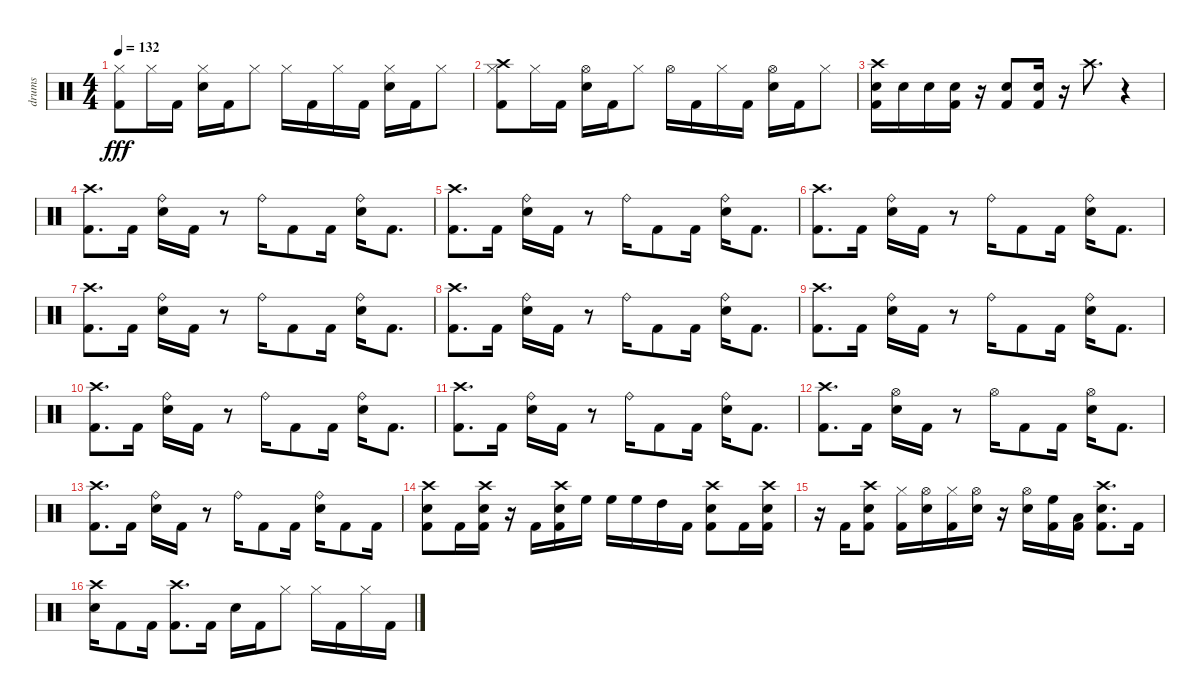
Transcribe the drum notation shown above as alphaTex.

\track ("drums" "drums") {instrument percussion}
\staff {score}
\articulation defaults
\ts (4 4)
\tempo 132
\clef neutral
\ks c
("Kick (hit) 2" "Hi-Hat (closed)").8{dy fff} "Hi-Hat (closed)".16 "Kick (hit) 2".16 ("Snare (hit) 2" "Hi-Hat (closed)").16 "Kick (hit) 2".16 "Hi-Hat (closed)".8 "Hi-Hat (closed)".16 "Kick (hit) 2".16 "Hi-Hat (closed)".16 "Kick (hit) 2".16 ("Snare (hit) 2" "Hi-Hat (closed)").16 "Kick (hit) 2".16 "Hi-Hat (closed)".8 |
("Kick (hit) 2" "Crash high (hit)" "Hi-Hat (closed)").8 "Hi-Hat (closed)".16 "Kick (hit) 2".16 ("Hi-Hat (open)" "Snare (hit) 2").16 "Kick (hit) 2".16 "Hi-Hat (closed)".8 "Hi-Hat (open)".16 "Kick (hit) 2".16 "Hi-Hat (closed)".16 "Kick (hit) 2".16 ("Snare (hit) 2" "Hi-Hat (open)").16 "Kick (hit) 2".16 "Hi-Hat (closed)".8 |
("Kick (hit) 2" "Snare (hit) 2" "Crash high (hit)").16 "Snare (hit) 2".16 "Snare (hit) 2".16 ("Kick (hit) 2" "Snare (hit) 2").16 r.16 ("Kick (hit) 2" "Snare (hit) 2").8 ("Kick (hit) 2" "Snare (hit) 2").16 r.16 "Crash high (hit)".8{d} r.4 |
("Kick (hit) 2" "Crash high (hit)").8{d} "Kick (hit) 2".16 ("Snare (hit) 2" "Ride (bell)").16 "Kick (hit) 2".16 r.8 "Ride (bell)".16 "Kick (hit) 2".8 "Kick (hit) 2".16 ("Snare (hit) 2" "Ride (bell)").16 "Kick (hit) 2".8{d} |
("Kick (hit) 2" "Crash high (hit)").8{d} "Kick (hit) 2".16 ("Snare (hit) 2" "Ride (bell)").16 "Kick (hit) 2".16 r.8 "Ride (bell)".16 "Kick (hit) 2".8 "Kick (hit) 2".16 ("Snare (hit) 2" "Ride (bell)").16 "Kick (hit) 2".8{d} |
("Kick (hit) 2" "Crash high (hit)").8{d} "Kick (hit) 2".16 ("Snare (hit) 2" "Ride (bell)").16 "Kick (hit) 2".16 r.8 "Ride (bell)".16 "Kick (hit) 2".8 "Kick (hit) 2".16 ("Snare (hit) 2" "Ride (bell)").16 "Kick (hit) 2".8{d} |
("Kick (hit) 2" "Crash high (hit)").8{d} "Kick (hit) 2".16 ("Snare (hit) 2" "Ride (bell)").16 "Kick (hit) 2".16 r.8 "Ride (bell)".16 "Kick (hit) 2".8 "Kick (hit) 2".16 ("Snare (hit) 2" "Ride (bell)").16 "Kick (hit) 2".8{d} |
("Kick (hit) 2" "Crash high (hit)").8{d} "Kick (hit) 2".16 ("Snare (hit) 2" "Ride (bell)").16 "Kick (hit) 2".16 r.8 "Ride (bell)".16 "Kick (hit) 2".8 "Kick (hit) 2".16 ("Snare (hit) 2" "Ride (bell)").16 "Kick (hit) 2".8{d} |
("Kick (hit) 2" "Crash high (hit)").8{d} "Kick (hit) 2".16 ("Snare (hit) 2" "Ride (bell)").16 "Kick (hit) 2".16 r.8 "Ride (bell)".16 "Kick (hit) 2".8 "Kick (hit) 2".16 ("Snare (hit) 2" "Ride (bell)").16 "Kick (hit) 2".8{d} |
("Kick (hit) 2" "Crash high (hit)").8{d} "Kick (hit) 2".16 ("Snare (hit) 2" "Ride (bell)").16 "Kick (hit) 2".16 r.8 "Ride (bell)".16 "Kick (hit) 2".8 "Kick (hit) 2".16 ("Snare (hit) 2" "Ride (bell)").16 "Kick (hit) 2".8{d} |
("Kick (hit) 2" "Crash high (hit)").8{d} "Kick (hit) 2".16 ("Snare (hit) 2" "Ride (bell)").16 "Kick (hit) 2".16 r.8 "Ride (bell)".16 "Kick (hit) 2".8 "Kick (hit) 2".16 ("Snare (hit) 2" "Ride (bell)").16 "Kick (hit) 2".8{d} |
("Kick (hit) 2" "Crash high (hit)").8{d} "Kick (hit) 2".16 ("Snare (hit) 2" "Hi-Hat (open)").16 "Kick (hit) 2".16 r.8 "Hi-Hat (open)".16 "Kick (hit) 2".8 "Kick (hit) 2".16 ("Snare (hit) 2" "Hi-Hat (open)").16 "Kick (hit) 2".8{d} |
("Kick (hit) 2" "Crash high (hit)").8{d} "Kick (hit) 2".16 ("Snare (hit) 2" "Ride (bell)").16 "Kick (hit) 2".16 r.8 "Ride (bell)".16 "Kick (hit) 2".8 "Kick (hit) 2".16 ("Snare (hit) 2" "Ride (bell)").16 "Kick (hit) 2".8 "Kick (hit) 2".16 |
("Kick (hit) 2" "Snare (hit) 2" "Crash high (hit)").8 "Kick (hit) 2".16 ("Kick (hit) 2" "Snare (hit) 2" "Crash high (hit)").16 r.16 "Kick (hit) 2".16 ("Kick (hit) 2" "Snare (hit) 2" "Crash high (hit)").16 "High Floor Tom (hit)".16 "High Floor Tom (hit)".16 "High Floor Tom (hit)".16 "High Tom (hit)".16 "Kick (hit) 2".16 ("Kick (hit) 2" "Snare (hit) 2" "Crash high (hit)").8 "Kick (hit) 2".16 ("Kick (hit) 2" "Snare (hit) 2" "Crash high (hit)").16 |
r.16 "Kick (hit) 2".16 ("Kick (hit) 2" "Snare (hit) 2" "Crash high (hit)").8 ("Kick (hit) 2" "Hi-Hat (closed)").16 ("Snare (hit) 2" "Hi-Hat (open)").16 ("Kick (hit) 2" "Hi-Hat (closed)").16 ("Snare (hit) 2" "Hi-Hat (open)").16 r.16 ("Snare (hit) 2" "Hi-Hat (open)").16 ("Kick (hit) 2" "High Floor Tom (hit)").16 ("Kick (hit) 2" "Low Tom (hit)").16 ("Kick (hit) 2" "Snare (hit) 2" "Crash high (hit)").8{d} "Kick (hit) 2".16 |
("Snare (hit) 2" "Crash high (hit)").16 "Kick (hit) 2".8 "Kick (hit) 2".16 ("Kick (hit) 2" "Crash high (hit)").8{d} "Kick (hit) 2".16 "Snare (hit) 2".16 "Kick (hit) 2".16 "Hi-Hat (closed)".8 "Hi-Hat (closed)".16 "Kick (hit) 2".16 "Hi-Hat (closed)".16 "Kick (hit) 2".16
